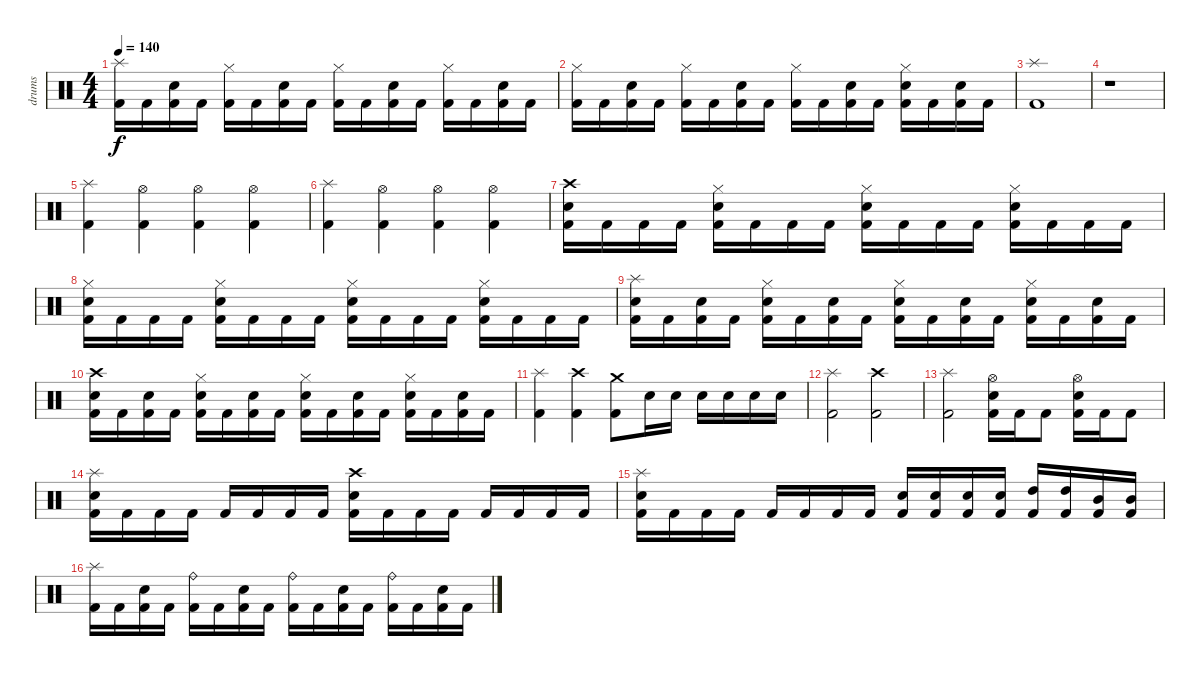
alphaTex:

\track ("drums" "drums") {instrument percussion}
\staff {score}
\articulation defaults
\ts (4 4)
\tempo 140
\clef neutral
\ks c
("Splash (hit)" "Kick (hit) 2").16{dy f} "Kick (hit) 2".16 ("Electric Snare (hit)" "Kick (hit) 2").16 "Kick (hit) 2".16 ("Hi-Hat (closed)" "Kick (hit) 2").16 "Kick (hit) 2".16 ("Electric Snare (hit)" "Kick (hit) 2").16 "Kick (hit) 2".16 ("Hi-Hat (closed)" "Kick (hit) 2").16 "Kick (hit) 2".16 ("Electric Snare (hit)" "Kick (hit) 2").16 "Kick (hit) 2".16 ("Hi-Hat (closed)" "Kick (hit) 2").16 "Kick (hit) 2".16 ("Electric Snare (hit)" "Kick (hit) 2").16 "Kick (hit) 2".16 |
("Hi-Hat (closed)" "Kick (hit) 2").16 "Kick (hit) 2".16 ("Electric Snare (hit)" "Kick (hit) 2").16 "Kick (hit) 2".16 ("Hi-Hat (closed)" "Kick (hit) 2").16 "Kick (hit) 2".16 ("Electric Snare (hit)" "Kick (hit) 2").16 "Kick (hit) 2".16 ("Hi-Hat (closed)" "Kick (hit) 2").16 "Kick (hit) 2".16 ("Electric Snare (hit)" "Kick (hit) 2").16 "Kick (hit) 2".16 ("Hi-Hat (closed)" "Electric Snare (hit)" "Kick (hit) 2").16 "Kick (hit) 2".16 ("Electric Snare (hit)" "Kick (hit) 2").16 "Kick (hit) 2".16 |
("Splash (hit)" "Kick (hit) 2").1 |
r.1 |
("Splash (hit)" "Kick (hit) 2").4 ("Hi-Hat (open)" "Kick (hit) 2").4 ("Hi-Hat (open)" "Kick (hit) 2").4 ("Hi-Hat (open)" "Kick (hit) 2").4 |
("Splash (hit)" "Kick (hit) 2").4 ("Hi-Hat (open)" "Kick (hit) 2").4 ("Hi-Hat (open)" "Kick (hit) 2").4 ("Hi-Hat (open)" "Kick (hit) 2").4 |
("Crash high (hit)" "Electric Snare (hit)" "Kick (hit) 2").16 "Kick (hit) 2".16 "Kick (hit) 2".16 "Kick (hit) 2".16 ("Hi-Hat (closed)" "Electric Snare (hit)" "Kick (hit) 2").16 "Kick (hit) 2".16 "Kick (hit) 2".16 "Kick (hit) 2".16 ("Hi-Hat (closed)" "Electric Snare (hit)" "Kick (hit) 2").16 "Kick (hit) 2".16 "Kick (hit) 2".16 "Kick (hit) 2".16 ("Hi-Hat (closed)" "Electric Snare (hit)" "Kick (hit) 2").16 "Kick (hit) 2".16 "Kick (hit) 2".16 "Kick (hit) 2".16 |
("Hi-Hat (closed)" "Electric Snare (hit)" "Kick (hit) 2").16 "Kick (hit) 2".16 "Kick (hit) 2".16 "Kick (hit) 2".16 ("Hi-Hat (closed)" "Electric Snare (hit)" "Kick (hit) 2").16 "Kick (hit) 2".16 "Kick (hit) 2".16 "Kick (hit) 2".16 ("Hi-Hat (closed)" "Electric Snare (hit)" "Kick (hit) 2").16 "Kick (hit) 2".16 "Kick (hit) 2".16 "Kick (hit) 2".16 ("Hi-Hat (closed)" "Electric Snare (hit)" "Kick (hit) 2").16 "Kick (hit) 2".16 "Kick (hit) 2".16 "Kick (hit) 2".16 |
("Splash (hit)" "Electric Snare (hit)" "Kick (hit) 2").16 "Kick (hit) 2".16 ("Electric Snare (hit)" "Kick (hit) 2").16 "Kick (hit) 2".16 ("Hi-Hat (closed)" "Electric Snare (hit)" "Kick (hit) 2").16 "Kick (hit) 2".16 ("Electric Snare (hit)" "Kick (hit) 2").16 "Kick (hit) 2".16 ("Hi-Hat (closed)" "Electric Snare (hit)" "Kick (hit) 2").16 "Kick (hit) 2".16 ("Electric Snare (hit)" "Kick (hit) 2").16 "Kick (hit) 2".16 ("Hi-Hat (closed)" "Electric Snare (hit)" "Kick (hit) 2").16 "Kick (hit) 2".16 ("Electric Snare (hit)" "Kick (hit) 2").16 "Kick (hit) 2".16 |
("Crash high (hit)" "Electric Snare (hit)" "Kick (hit) 2").16 "Kick (hit) 2".16 ("Electric Snare (hit)" "Kick (hit) 2").16 "Kick (hit) 2".16 ("Hi-Hat (closed)" "Electric Snare (hit)" "Kick (hit) 2").16 "Kick (hit) 2".16 ("Electric Snare (hit)" "Kick (hit) 2").16 "Kick (hit) 2".16 ("Hi-Hat (closed)" "Electric Snare (hit)" "Kick (hit) 2").16 "Kick (hit) 2".16 ("Electric Snare (hit)" "Kick (hit) 2").16 "Kick (hit) 2".16 ("Hi-Hat (closed)" "Electric Snare (hit)" "Kick (hit) 2").16 "Kick (hit) 2".16 ("Electric Snare (hit)" "Kick (hit) 2").16 "Kick (hit) 2".16 |
("Splash (hit)" "Kick (hit) 2").4 ("Crash high (hit)" "Kick (hit) 2").4 ("Crash medium (hit)" "Kick (hit) 2").8 "Electric Snare (hit)".16 "Electric Snare (hit)".16 "Electric Snare (hit)".16 "Electric Snare (hit)".16 "Electric Snare (hit)".16 "Electric Snare (hit)".16 |
("Splash (hit)" "Kick (hit) 2").2 ("Crash high (hit)" "Kick (hit) 2").2 |
("Splash (hit)" "Kick (hit) 2").2 ("Hi-Hat (open)" "Electric Snare (hit)" "Kick (hit) 2").16 "Kick (hit) 2".16 "Kick (hit) 2".8 ("Hi-Hat (open)" "Electric Snare (hit)" "Kick (hit) 2").16 "Kick (hit) 2".16 "Kick (hit) 2".8 |
("Splash (hit)" "Electric Snare (hit)" "Kick (hit) 2").16 "Kick (hit) 2".16 "Kick (hit) 2".16 "Kick (hit) 2".16 "Kick (hit) 2".16 "Kick (hit) 2".16 "Kick (hit) 2".16 "Kick (hit) 2".16 ("Crash high (hit)" "Electric Snare (hit)" "Kick (hit) 2").16 "Kick (hit) 2".16 "Kick (hit) 2".16 "Kick (hit) 2".16 "Kick (hit) 2".16 "Kick (hit) 2".16 "Kick (hit) 2".16 "Kick (hit) 2".16 |
("Splash (hit)" "Electric Snare (hit)" "Kick (hit) 2").16 "Kick (hit) 2".16 "Kick (hit) 2".16 "Kick (hit) 2".16 "Kick (hit) 2".16 "Kick (hit) 2".16 "Kick (hit) 2".16 "Kick (hit) 2".16 ("Electric Snare (hit)" "Kick (hit) 2").16 ("Electric Snare (hit)" "Kick (hit) 2").16 ("Electric Snare (hit)" "Kick (hit) 2").16 ("Electric Snare (hit)" "Kick (hit) 2").16 ("High Tom (hit)" "Kick (hit) 2").16 ("High Tom (hit)" "Kick (hit) 2").16 ("Mid Tom (hit)" "Kick (hit) 2").16 ("Mid Tom (hit)" "Kick (hit) 2").16 |
("Splash (hit)" "Kick (hit) 2").16 "Kick (hit) 2".16 ("Electric Snare (hit)" "Kick (hit) 2").16 "Kick (hit) 2".16 ("Ride (bell)" "Kick (hit) 2").16 "Kick (hit) 2".16 ("Electric Snare (hit)" "Kick (hit) 2").16 "Kick (hit) 2".16 ("Ride (bell)" "Kick (hit) 2").16 "Kick (hit) 2".16 ("Electric Snare (hit)" "Kick (hit) 2").16 "Kick (hit) 2".16 ("Ride (bell)" "Kick (hit) 2").16 "Kick (hit) 2".16 ("Electric Snare (hit)" "Kick (hit) 2").16 "Kick (hit) 2".16
